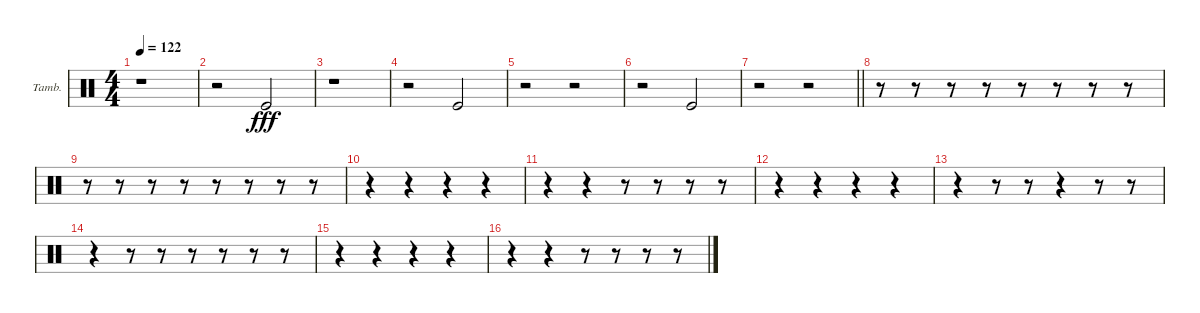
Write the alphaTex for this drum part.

\bracketExtendMode groupsimilarinstruments
\firstSystemTrackNameOrientation horizontal
\otherSystemsTrackNameOrientation horizontal
\track ("Tambourine" "Tamb.") {instrument percussion}
\staff {score}
\articulation defaults
\ts (4 4)
\tempo 122
\clef neutral
\ks c
r.1{dy fff} |
r.2 "Kick (hit)".2 |
r.1 |
r.2 "Kick (hit)".2 |
r.2 r.2 |
r.2 "Kick (hit)".2 |
\barLineRight lightlight
r.2 r.2 |
r.8 r.8 r.8 r.8 r.8 r.8 r.8 r.8 |
r.8 r.8 r.8 r.8 r.8 r.8 r.8 r.8 |
r.4 r.4 r.4 r.4 |
r.4 r.4 r.8 r.8 r.8 r.8 |
r.4 r.4 r.4 r.4 |
r.4 r.8 r.8 r.4 r.8 r.8 |
r.4 r.8 r.8 r.8 r.8 r.8 r.8 |
r.4 r.4 r.4 r.4 |
r.4 r.4 r.8 r.8 r.8 r.8
